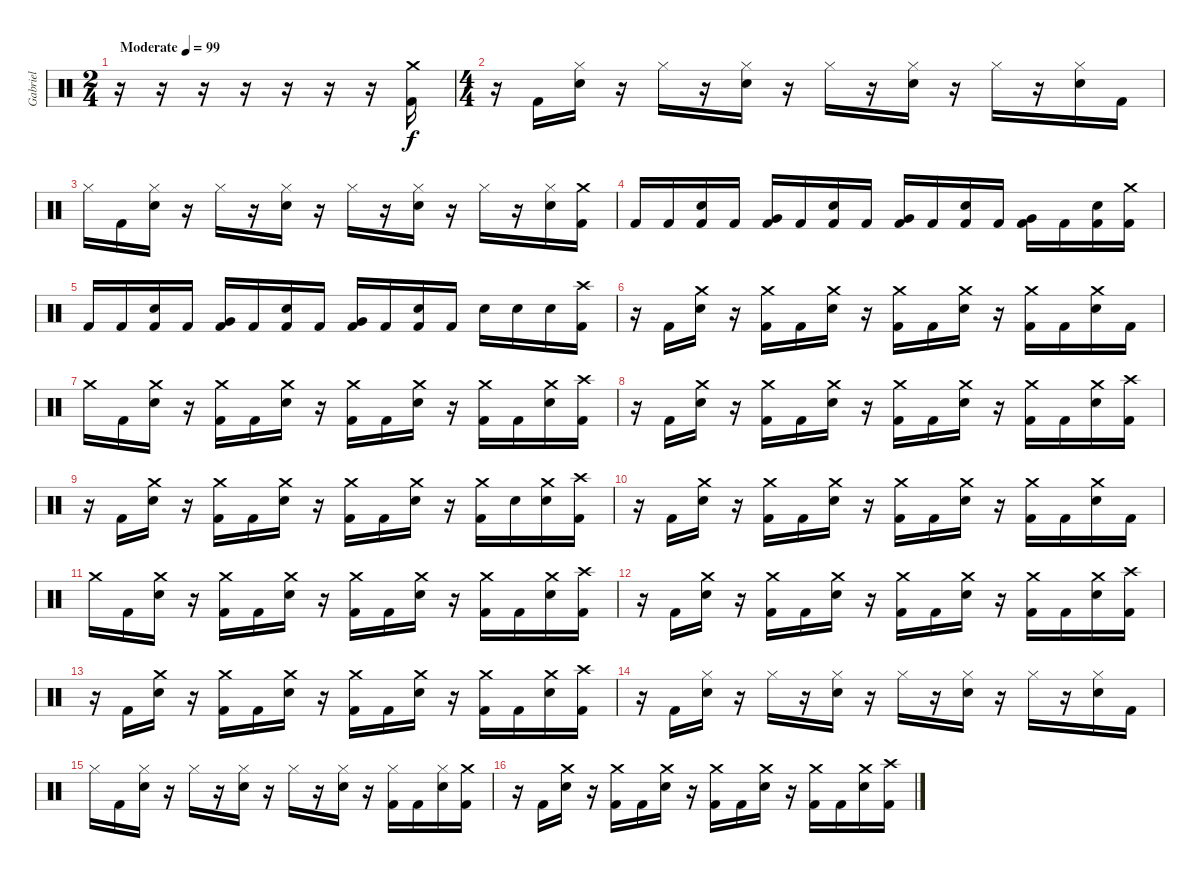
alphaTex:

\track ("Gabriel" "Gabriel") {instrument percussion}
\staff {score}
\articulation defaults
\ts (2 4)
\tempo (99 "Moderate")
\clef neutral
\ks c
r.16{dy f} r.16 r.16 r.16 r.16 r.16 r.16 ("Crash medium (hit)" "Kick (hit) 2").16 |
\ts (4 4)
r.16 "Kick (hit) 2".16 ("Hi-Hat (closed)" "Electric Snare (hit)").16 r.16 "Hi-Hat (closed)".16 r.16 ("Hi-Hat (closed)" "Electric Snare (hit)").16 r.16 "Hi-Hat (closed)".16 r.16 ("Hi-Hat (closed)" "Electric Snare (hit)").16 r.16 "Hi-Hat (closed)".16 r.16 ("Hi-Hat (closed)" "Electric Snare (hit)").16 "Kick (hit) 2".16 |
"Hi-Hat (closed)".16 "Kick (hit) 2".16 ("Hi-Hat (closed)" "Electric Snare (hit)").16 r.16 "Hi-Hat (closed)".16 r.16 ("Hi-Hat (closed)" "Electric Snare (hit)").16 r.16 "Hi-Hat (closed)".16 r.16 ("Hi-Hat (closed)" "Electric Snare (hit)").16 r.16 "Hi-Hat (closed)".16 r.16 ("Hi-Hat (closed)" "Electric Snare (hit)").16 ("Crash medium (hit)" "Kick (hit) 2").16 |
"Kick (hit) 2".16 "Kick (hit) 2".16 ("Electric Snare (hit)" "Kick (hit) 2").16 "Kick (hit) 2".16 ("Very Low Tom (hit)" "Kick (hit) 2").16 "Kick (hit) 2".16 ("Electric Snare (hit)" "Kick (hit) 2").16 "Kick (hit) 2".16 ("Very Low Tom (hit)" "Kick (hit) 2").16 "Kick (hit) 2".16 ("Electric Snare (hit)" "Kick (hit) 2").16 "Kick (hit) 2".16 ("Very Low Tom (hit)" "Kick (hit) 2").16 "Kick (hit) 2".16 ("Electric Snare (hit)" "Kick (hit) 2").16 ("Crash medium (hit)" "Kick (hit) 2").16 |
"Kick (hit) 2".16 "Kick (hit) 2".16 ("Electric Snare (hit)" "Kick (hit) 2").16 "Kick (hit) 2".16 ("Very Low Tom (hit)" "Kick (hit) 2").16 "Kick (hit) 2".16 ("Electric Snare (hit)" "Kick (hit) 2").16 "Kick (hit) 2".16 ("Very Low Tom (hit)" "Kick (hit) 2").16 "Kick (hit) 2".16 ("Electric Snare (hit)" "Kick (hit) 2").16 "Kick (hit) 2".16 "Electric Snare (hit)".16 "Electric Snare (hit)".16 "Electric Snare (hit)".16 ("Crash high (hit)" "Kick (hit) 2").16 |
r.16 "Kick (hit) 2".16 ("Crash medium (hit)" "Electric Snare (hit)").16 r.16 ("Crash medium (hit)" "Kick (hit) 2").16 "Kick (hit) 2".16 ("Crash medium (hit)" "Electric Snare (hit)").16 r.16 ("Crash medium (hit)" "Kick (hit) 2").16 "Kick (hit) 2".16 ("Crash medium (hit)" "Electric Snare (hit)").16 r.16 ("Crash medium (hit)" "Kick (hit) 2").16 "Kick (hit) 2".16 ("Crash medium (hit)" "Electric Snare (hit)").16 "Kick (hit) 2".16 |
"Crash medium (hit)".16 "Kick (hit) 2".16 ("Crash medium (hit)" "Electric Snare (hit)").16 r.16 ("Crash medium (hit)" "Kick (hit) 2").16 "Kick (hit) 2".16 ("Crash medium (hit)" "Electric Snare (hit)").16 r.16 ("Crash medium (hit)" "Kick (hit) 2").16 "Kick (hit) 2".16 ("Crash medium (hit)" "Electric Snare (hit)").16 r.16 ("Crash medium (hit)" "Kick (hit) 2").16 "Kick (hit) 2".16 ("Crash medium (hit)" "Electric Snare (hit)").16 ("Crash high (hit)" "Kick (hit) 2").16 |
r.16 "Kick (hit) 2".16 ("Crash medium (hit)" "Electric Snare (hit)").16 r.16 ("Crash medium (hit)" "Kick (hit) 2").16 "Kick (hit) 2".16 ("Crash medium (hit)" "Electric Snare (hit)").16 r.16 ("Crash medium (hit)" "Kick (hit) 2").16 "Kick (hit) 2".16 ("Crash medium (hit)" "Electric Snare (hit)").16 r.16 ("Crash medium (hit)" "Kick (hit) 2").16 "Kick (hit) 2".16 ("Crash medium (hit)" "Electric Snare (hit)").16 ("Crash high (hit)" "Kick (hit) 2").16 |
r.16 "Kick (hit) 2".16 ("Crash medium (hit)" "Electric Snare (hit)").16 r.16 ("Crash medium (hit)" "Kick (hit) 2").16 "Kick (hit) 2".16 ("Crash medium (hit)" "Electric Snare (hit)").16 r.16 ("Crash medium (hit)" "Kick (hit) 2").16 "Kick (hit) 2".16 ("Crash medium (hit)" "Electric Snare (hit)").16 r.16 ("Crash medium (hit)" "Kick (hit) 2").16 "Electric Snare (hit)".16 ("Crash medium (hit)" "Electric Snare (hit)").16 ("Crash high (hit)" "Kick (hit) 2").16 |
r.16 "Kick (hit) 2".16 ("Crash medium (hit)" "Electric Snare (hit)").16 r.16 ("Crash medium (hit)" "Kick (hit) 2").16 "Kick (hit) 2".16 ("Crash medium (hit)" "Electric Snare (hit)").16 r.16 ("Crash medium (hit)" "Kick (hit) 2").16 "Kick (hit) 2".16 ("Crash medium (hit)" "Electric Snare (hit)").16 r.16 ("Crash medium (hit)" "Kick (hit) 2").16 "Kick (hit) 2".16 ("Crash medium (hit)" "Electric Snare (hit)").16 "Kick (hit) 2".16 |
"Crash medium (hit)".16 "Kick (hit) 2".16 ("Crash medium (hit)" "Electric Snare (hit)").16 r.16 ("Crash medium (hit)" "Kick (hit) 2").16 "Kick (hit) 2".16 ("Crash medium (hit)" "Electric Snare (hit)").16 r.16 ("Crash medium (hit)" "Kick (hit) 2").16 "Kick (hit) 2".16 ("Crash medium (hit)" "Electric Snare (hit)").16 r.16 ("Crash medium (hit)" "Kick (hit) 2").16 "Kick (hit) 2".16 ("Crash medium (hit)" "Electric Snare (hit)").16 ("Crash high (hit)" "Kick (hit) 2").16 |
r.16 "Kick (hit) 2".16 ("Crash medium (hit)" "Electric Snare (hit)").16 r.16 ("Crash medium (hit)" "Kick (hit) 2").16 "Kick (hit) 2".16 ("Crash medium (hit)" "Electric Snare (hit)").16 r.16 ("Crash medium (hit)" "Kick (hit) 2").16 "Kick (hit) 2".16 ("Crash medium (hit)" "Electric Snare (hit)").16 r.16 ("Crash medium (hit)" "Kick (hit) 2").16 "Kick (hit) 2".16 ("Crash medium (hit)" "Electric Snare (hit)").16 ("Crash high (hit)" "Kick (hit) 2").16 |
r.16 "Kick (hit) 2".16 ("Crash medium (hit)" "Electric Snare (hit)").16 r.16 ("Crash medium (hit)" "Kick (hit) 2").16 "Kick (hit) 2".16 ("Crash medium (hit)" "Electric Snare (hit)").16 r.16 ("Crash medium (hit)" "Kick (hit) 2").16 "Kick (hit) 2".16 ("Crash medium (hit)" "Electric Snare (hit)").16 r.16 ("Crash medium (hit)" "Kick (hit) 2").16 "Kick (hit) 2".16 ("Crash medium (hit)" "Electric Snare (hit)").16 ("Crash high (hit)" "Kick (hit) 2").16 |
r.16 "Kick (hit) 2".16 ("Hi-Hat (closed)" "Electric Snare (hit)").16 r.16 "Hi-Hat (closed)".16 r.16 ("Hi-Hat (closed)" "Electric Snare (hit)").16 r.16 "Hi-Hat (closed)".16 r.16 ("Hi-Hat (closed)" "Electric Snare (hit)").16 r.16 "Hi-Hat (closed)".16 r.16 ("Hi-Hat (closed)" "Electric Snare (hit)").16 "Kick (hit) 2".16 |
"Hi-Hat (closed)".16 "Kick (hit) 2".16 ("Hi-Hat (closed)" "Electric Snare (hit)").16 r.16 "Hi-Hat (closed)".16 r.16 ("Hi-Hat (closed)" "Electric Snare (hit)").16 r.16 "Hi-Hat (closed)".16 r.16 ("Hi-Hat (closed)" "Electric Snare (hit)").16 r.16 ("Hi-Hat (closed)" "Kick (hit) 2").16 "Kick (hit) 2".16 ("Hi-Hat (closed)" "Electric Snare (hit)").16 ("Crash medium (hit)" "Kick (hit) 2").16 |
r.16 "Kick (hit) 2".16 ("Crash medium (hit)" "Electric Snare (hit)").16 r.16 ("Crash medium (hit)" "Kick (hit) 2").16 "Kick (hit) 2".16 ("Crash medium (hit)" "Electric Snare (hit)").16 r.16 ("Crash medium (hit)" "Kick (hit) 2").16 "Kick (hit) 2".16 ("Crash medium (hit)" "Electric Snare (hit)").16 r.16 ("Crash medium (hit)" "Kick (hit) 2").16 "Kick (hit) 2".16 ("Crash medium (hit)" "Electric Snare (hit)").16 ("Crash high (hit)" "Kick (hit) 2").16
